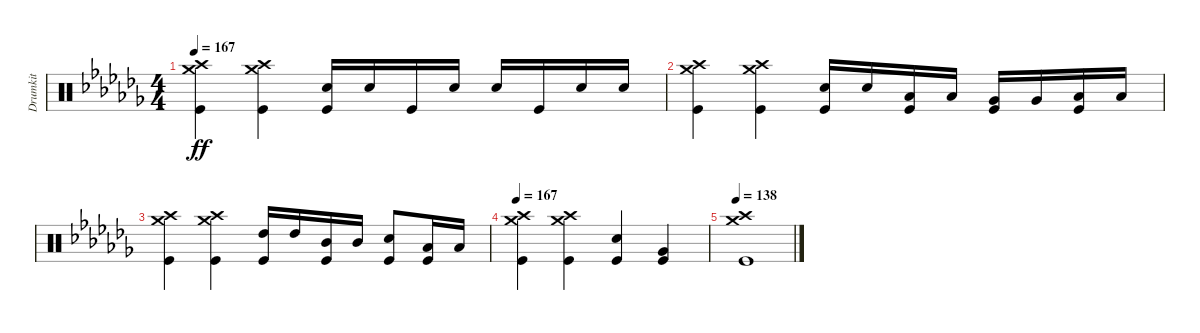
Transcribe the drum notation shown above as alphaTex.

\track ("Drumkit" "Drumkit") {instrument percussion}
\staff {score}
\articulation defaults
\ts (4 4)
\tempo 167
\clef neutral
\ks abminor
("Crash medium (hit)" "Kick (hit)" "Crash high (hit)").4{dy ff} ("Crash medium (hit)" "Kick (hit)" "Crash high (hit)").4 ("Snare (hit) 2" "Kick (hit)").16 "Snare (hit) 2".16 "Kick (hit)".16 "Snare (hit) 2".16 "Snare (hit) 2".16 "Kick (hit)".16 "Snare (hit) 2".16 "Snare (hit) 2".16 |
("Crash medium (hit)" "Kick (hit)" "Crash high (hit)").4 ("Crash medium (hit)" "Kick (hit)" "Crash high (hit)").4 ("Snare (hit) 2" "Kick (hit)").16 "Snare (hit) 2".16 ("Kick (hit)" "Low Tom (hit)").16 "Low Tom (hit)".16 ("Kick (hit)" "Very Low Tom (hit)").16 "Very Low Tom (hit)".16 ("Kick (hit)" "Low Floor Tom (hit)").16 "Low Floor Tom (hit)".16 |
("Crash medium (hit)" "Kick (hit)" "Crash high (hit)").4 ("Crash medium (hit)" "Kick (hit)" "Crash high (hit)").4 ("Kick (hit)" "High Tom (hit)").16 "High Tom (hit)".16 ("Kick (hit)" "Mid Tom (hit)").16 "Mid Tom (hit)".16 ("Snare (hit) 2" "Kick (hit)").8 ("Kick (hit)" "Low Tom (hit)").16 "Low Tom (hit)".16 |
\tempo 167
("Crash medium (hit)" "Kick (hit)" "Crash high (hit)").4 ("Crash medium (hit)" "Kick (hit)" "Crash high (hit)").4 ("Snare (hit) 2" "Kick (hit)").4 ("Kick (hit)" "Very Low Tom (hit)").4 |
\tempo 138
("Crash medium (hit)" "Kick (hit)" "Crash high (hit)").1
